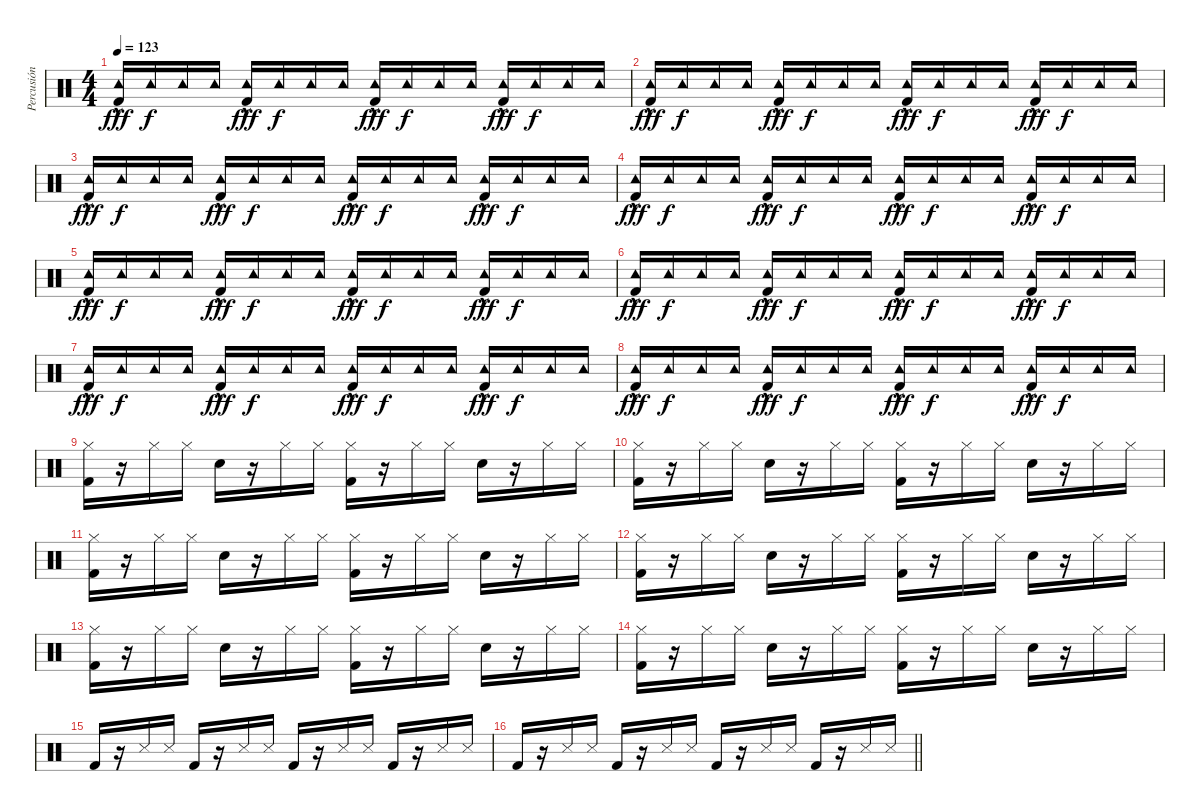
\track ("Percusión" "Percusión") {instrument percussion}
\staff {score}
\articulation defaults
\ts (4 4)
\tempo 123
\clef neutral
\ks c
("Tambourine (hit)"{hac} "Kick (hit) 2").16{dy fff} "Tambourine (hit)".16{dy f} "Tambourine (hit)".16 "Tambourine (hit)".16 ("Tambourine (hit)"{hac} "Kick (hit) 2").16{dy fff} "Tambourine (hit)".16{dy f} "Tambourine (hit)".16 "Tambourine (hit)".16 ("Tambourine (hit)"{hac} "Kick (hit) 2").16{dy fff} "Tambourine (hit)".16{dy f} "Tambourine (hit)".16 "Tambourine (hit)".16 ("Tambourine (hit)"{hac} "Kick (hit) 2").16{dy fff} "Tambourine (hit)".16{dy f} "Tambourine (hit)".16 "Tambourine (hit)".16 |
("Tambourine (hit)"{hac} "Kick (hit) 2").16{dy fff} "Tambourine (hit)".16{dy f} "Tambourine (hit)".16 "Tambourine (hit)".16 ("Tambourine (hit)"{hac} "Kick (hit) 2").16{dy fff} "Tambourine (hit)".16{dy f} "Tambourine (hit)".16 "Tambourine (hit)".16 ("Tambourine (hit)"{hac} "Kick (hit) 2").16{dy fff} "Tambourine (hit)".16{dy f} "Tambourine (hit)".16 "Tambourine (hit)".16 ("Tambourine (hit)"{hac} "Kick (hit) 2").16{dy fff} "Tambourine (hit)".16{dy f} "Tambourine (hit)".16 "Tambourine (hit)".16 |
("Tambourine (hit)"{hac} "Kick (hit) 2").16{dy fff} "Tambourine (hit)".16{dy f} "Tambourine (hit)".16 "Tambourine (hit)".16 ("Tambourine (hit)"{hac} "Kick (hit) 2").16{dy fff} "Tambourine (hit)".16{dy f} "Tambourine (hit)".16 "Tambourine (hit)".16 ("Tambourine (hit)"{hac} "Kick (hit) 2").16{dy fff} "Tambourine (hit)".16{dy f} "Tambourine (hit)".16 "Tambourine (hit)".16 ("Tambourine (hit)"{hac} "Kick (hit) 2").16{dy fff} "Tambourine (hit)".16{dy f} "Tambourine (hit)".16 "Tambourine (hit)".16 |
("Tambourine (hit)"{hac} "Kick (hit) 2").16{dy fff} "Tambourine (hit)".16{dy f} "Tambourine (hit)".16 "Tambourine (hit)".16 ("Tambourine (hit)"{hac} "Kick (hit) 2").16{dy fff} "Tambourine (hit)".16{dy f} "Tambourine (hit)".16 "Tambourine (hit)".16 ("Tambourine (hit)"{hac} "Kick (hit) 2").16{dy fff} "Tambourine (hit)".16{dy f} "Tambourine (hit)".16 "Tambourine (hit)".16 ("Tambourine (hit)"{hac} "Kick (hit) 2").16{dy fff} "Tambourine (hit)".16{dy f} "Tambourine (hit)".16 "Tambourine (hit)".16 |
("Tambourine (hit)"{hac} "Kick (hit) 2").16{dy fff} "Tambourine (hit)".16{dy f} "Tambourine (hit)".16 "Tambourine (hit)".16 ("Tambourine (hit)"{hac} "Kick (hit) 2").16{dy fff} "Tambourine (hit)".16{dy f} "Tambourine (hit)".16 "Tambourine (hit)".16 ("Tambourine (hit)"{hac} "Kick (hit) 2").16{dy fff} "Tambourine (hit)".16{dy f} "Tambourine (hit)".16 "Tambourine (hit)".16 ("Tambourine (hit)"{hac} "Kick (hit) 2").16{dy fff} "Tambourine (hit)".16{dy f} "Tambourine (hit)".16 "Tambourine (hit)".16 |
("Tambourine (hit)"{hac} "Kick (hit) 2").16{dy fff} "Tambourine (hit)".16{dy f} "Tambourine (hit)".16 "Tambourine (hit)".16 ("Tambourine (hit)"{hac} "Kick (hit) 2").16{dy fff} "Tambourine (hit)".16{dy f} "Tambourine (hit)".16 "Tambourine (hit)".16 ("Tambourine (hit)"{hac} "Kick (hit) 2").16{dy fff} "Tambourine (hit)".16{dy f} "Tambourine (hit)".16 "Tambourine (hit)".16 ("Tambourine (hit)"{hac} "Kick (hit) 2").16{dy fff} "Tambourine (hit)".16{dy f} "Tambourine (hit)".16 "Tambourine (hit)".16 |
("Tambourine (hit)"{hac} "Kick (hit) 2").16{dy fff} "Tambourine (hit)".16{dy f} "Tambourine (hit)".16 "Tambourine (hit)".16 ("Tambourine (hit)"{hac} "Kick (hit) 2").16{dy fff} "Tambourine (hit)".16{dy f} "Tambourine (hit)".16 "Tambourine (hit)".16 ("Tambourine (hit)"{hac} "Kick (hit) 2").16{dy fff} "Tambourine (hit)".16{dy f} "Tambourine (hit)".16 "Tambourine (hit)".16 ("Tambourine (hit)"{hac} "Kick (hit) 2").16{dy fff} "Tambourine (hit)".16{dy f} "Tambourine (hit)".16 "Tambourine (hit)".16 |
("Tambourine (hit)"{hac} "Kick (hit) 2").16{dy fff} "Tambourine (hit)".16{dy f} "Tambourine (hit)".16 "Tambourine (hit)".16 ("Tambourine (hit)"{hac} "Kick (hit) 2").16{dy fff} "Tambourine (hit)".16{dy f} "Tambourine (hit)".16 "Tambourine (hit)".16 ("Tambourine (hit)"{hac} "Kick (hit) 2").16{dy fff} "Tambourine (hit)".16{dy f} "Tambourine (hit)".16 "Tambourine (hit)".16 ("Tambourine (hit)"{hac} "Kick (hit) 2").16{dy fff} "Tambourine (hit)".16{dy f} "Tambourine (hit)".16 "Tambourine (hit)".16 |
("Hi-Hat (closed)" "Kick (hit) 2").16 r.16 "Hi-Hat (closed)".16 "Hi-Hat (closed)".16 "Snare (hit) 2".16 r.16 "Hi-Hat (closed)".16 "Hi-Hat (closed)".16 ("Hi-Hat (closed)" "Kick (hit) 2").16 r.16 "Hi-Hat (closed)".16 "Hi-Hat (closed)".16 "Snare (hit) 2".16 r.16 "Hi-Hat (closed)".16 "Hi-Hat (closed)".16 |
("Hi-Hat (closed)" "Kick (hit) 2").16 r.16 "Hi-Hat (closed)".16 "Hi-Hat (closed)".16 "Snare (hit) 2".16 r.16 "Hi-Hat (closed)".16 "Hi-Hat (closed)".16 ("Hi-Hat (closed)" "Kick (hit) 2").16 r.16 "Hi-Hat (closed)".16 "Hi-Hat (closed)".16 "Snare (hit) 2".16 r.16 "Hi-Hat (closed)".16 "Hi-Hat (closed)".16 |
("Hi-Hat (closed)" "Kick (hit) 2").16 r.16 "Hi-Hat (closed)".16 "Hi-Hat (closed)".16 "Snare (hit) 2".16 r.16 "Hi-Hat (closed)".16 "Hi-Hat (closed)".16 ("Hi-Hat (closed)" "Kick (hit) 2").16 r.16 "Hi-Hat (closed)".16 "Hi-Hat (closed)".16 "Snare (hit) 2".16 r.16 "Hi-Hat (closed)".16 "Hi-Hat (closed)".16 |
("Hi-Hat (closed)" "Kick (hit) 2").16 r.16 "Hi-Hat (closed)".16 "Hi-Hat (closed)".16 "Snare (hit) 2".16 r.16 "Hi-Hat (closed)".16 "Hi-Hat (closed)".16 ("Hi-Hat (closed)" "Kick (hit) 2").16 r.16 "Hi-Hat (closed)".16 "Hi-Hat (closed)".16 "Snare (hit) 2".16 r.16 "Hi-Hat (closed)".16 "Hi-Hat (closed)".16 |
("Hi-Hat (closed)" "Kick (hit) 2").16 r.16 "Hi-Hat (closed)".16 "Hi-Hat (closed)".16 "Snare (hit) 2".16 r.16 "Hi-Hat (closed)".16 "Hi-Hat (closed)".16 ("Hi-Hat (closed)" "Kick (hit) 2").16 r.16 "Hi-Hat (closed)".16 "Hi-Hat (closed)".16 "Snare (hit) 2".16 r.16 "Hi-Hat (closed)".16 "Hi-Hat (closed)".16 |
("Hi-Hat (closed)" "Kick (hit) 2").16 r.16 "Hi-Hat (closed)".16 "Hi-Hat (closed)".16 "Snare (hit) 2".16 r.16 "Hi-Hat (closed)".16 "Hi-Hat (closed)".16 ("Hi-Hat (closed)" "Kick (hit) 2").16 r.16 "Hi-Hat (closed)".16 "Hi-Hat (closed)".16 "Snare (hit) 2".16 r.16 "Hi-Hat (closed)".16 "Hi-Hat (closed)".16 |
"Kick (hit) 2".16 r.16 "Snare (side stick) 3".16 "Snare (side stick) 3".16 "Kick (hit) 2".16 r.16 "Snare (side stick) 3".16 "Snare (side stick) 3".16 "Kick (hit) 2".16 r.16 "Snare (side stick) 3".16 "Snare (side stick) 3".16 "Kick (hit) 2".16 r.16 "Snare (side stick) 3".16 "Snare (side stick) 3".16 |
\barLineRight lightlight "Kick (hit) 2".16
r.16 "Snare (side stick) 3".16 "Snare (side stick) 3".16 "Kick (hit) 2".16 r.16 "Snare (side stick) 3".16 "Snare (side stick) 3".16 "Kick (hit) 2".16 r.16 "Snare (side stick) 3".16 "Snare (side stick) 3".16 "Kick (hit) 2".16 r.16 "Snare (side stick) 3".16 "Snare (side stick) 3".16
